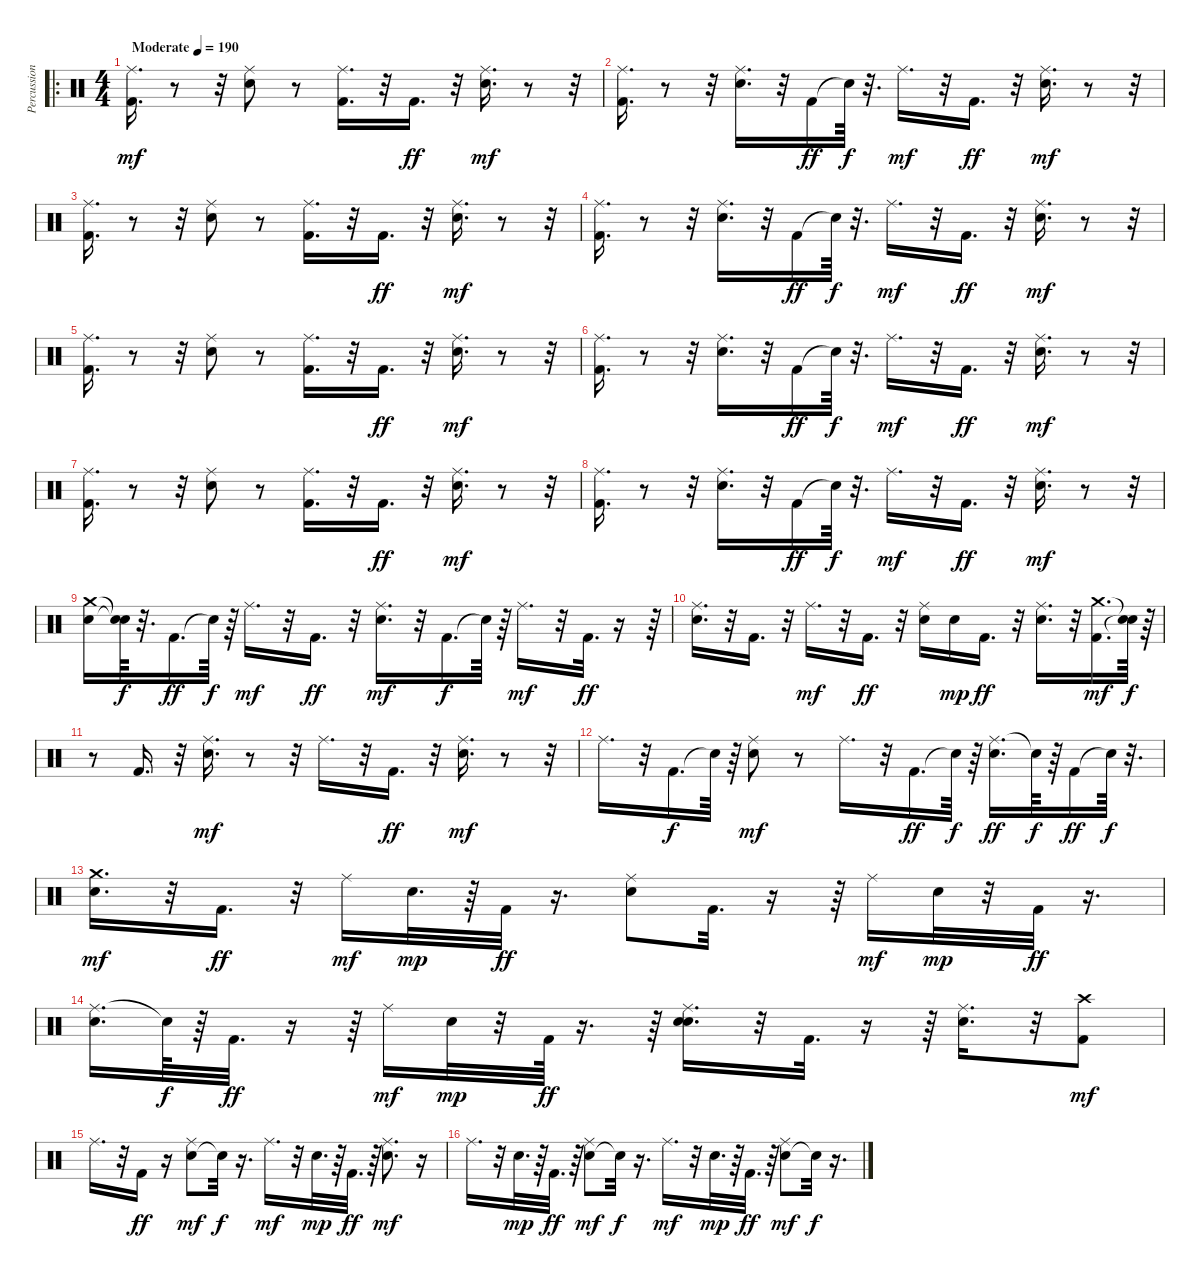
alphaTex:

\track ("Percussion" "Percussion") {instrument percussion}
\staff {score}
\articulation defaults
\ro
\ts (4 4)
\tempo (190 "Moderate")
\clef neutral
\ks c
("Kick (hit) 2" "Ride (middle)").16{d dy mf} r.8 r.32 ("Electric Snare (hit)" "Ride (middle)").8 r.8 ("Kick (hit) 2" "Ride (middle)").16{d} r.32 "Kick (hit) 2".16{d dy ff} r.32 ("Electric Snare (hit)" "Ride (middle)").16{d dy mf} r.8 r.32 |
("Kick (hit) 2" "Ride (middle)").16{d} r.8 r.32 ("Electric Snare (hit)" "Ride (middle)").16{d} r.32 "Kick (hit) 2".16{dy ff} "Snare (hit)"{t}.64{dy f} r.32{d} "Ride (middle)".16{d dy mf} r.32 "Kick (hit) 2".16{d dy ff} r.32 ("Electric Snare (hit)" "Ride (middle)").16{d dy mf} r.8 r.32 |
("Kick (hit) 2" "Ride (middle)").16{d} r.8 r.32 ("Electric Snare (hit)" "Ride (middle)").8 r.8 ("Kick (hit) 2" "Ride (middle)").16{d} r.32 "Kick (hit) 2".16{d dy ff} r.32 ("Electric Snare (hit)" "Ride (middle)").16{d dy mf} r.8 r.32 |
("Kick (hit) 2" "Ride (middle)").16{d} r.8 r.32 ("Electric Snare (hit)" "Ride (middle)").16{d} r.32 "Kick (hit) 2".16{dy ff} "Snare (hit)"{t}.64{dy f} r.32{d} "Ride (middle)".16{d dy mf} r.32 "Kick (hit) 2".16{d dy ff} r.32 ("Electric Snare (hit)" "Ride (middle)").16{d dy mf} r.8 r.32 |
("Kick (hit) 2" "Ride (middle)").16{d} r.8 r.32 ("Electric Snare (hit)" "Ride (middle)").8 r.8 ("Kick (hit) 2" "Ride (middle)").16{d} r.32 "Kick (hit) 2".16{d dy ff} r.32 ("Electric Snare (hit)" "Ride (middle)").16{d dy mf} r.8 r.32 |
("Kick (hit) 2" "Ride (middle)").16{d} r.8 r.32 ("Electric Snare (hit)" "Ride (middle)").16{d} r.32 "Kick (hit) 2".16{dy ff} "Snare (hit)"{t}.64{dy f} r.32{d} "Ride (middle)".16{d dy mf} r.32 "Kick (hit) 2".16{d dy ff} r.32 ("Electric Snare (hit)" "Ride (middle)").16{d dy mf} r.8 r.32 |
("Kick (hit) 2" "Ride (middle)").16{d} r.8 r.32 ("Electric Snare (hit)" "Ride (middle)").8 r.8 ("Kick (hit) 2" "Ride (middle)").16{d} r.32 "Kick (hit) 2".16{d dy ff} r.32 ("Electric Snare (hit)" "Ride (middle)").16{d dy mf} r.8 r.32 |
("Kick (hit) 2" "Ride (middle)").16{d} r.8 r.32 ("Electric Snare (hit)" "Ride (middle)").16{d} r.32 "Kick (hit) 2".16{dy ff} "Snare (hit)"{t}.64{dy f} r.32{d} "Ride (middle)".16{d dy mf} r.32 "Kick (hit) 2".16{d dy ff} r.32 ("Electric Snare (hit)" "Ride (middle)").16{d dy mf} r.8 r.32 |
("Electric Snare (hit)" "Crash medium (hit)").16 ("Snare (hit)"{t} "Snare (hit)"{t}).64{dy f} r.32{d} "Kick (hit) 2".16{d dy ff} "Snare (hit)"{t}.64{dy f} r.64 "Ride (middle)".16{d dy mf} r.32 "Kick (hit) 2".16{d dy ff} r.32 ("Electric Snare (hit)" "Ride (middle)").16{d dy mf} r.32 "Kick (hit) 2".16{d dy f} "Snare (hit)"{t}.64 r.64 "Ride (middle)".16{d dy mf} r.32 "Kick (hit) 2".32{d dy ff} r.16 r.64 |
("Ride (middle)" "Electric Snare (hit)").16{d} r.32 "Kick (hit) 2".16{d} r.32 "Ride (middle)".16{d dy mf} r.32 "Kick (hit) 2".16{d dy ff} r.32 ("Ride (middle)" "Electric Snare (hit)").16 "Electric Snare (hit)".16{dy mp} "Kick (hit) 2".16{d dy ff} r.32 ("Ride (middle)" "Electric Snare (hit)").16{d} r.32 ("Kick (hit) 2" "Crash medium (hit)").16{d dy mf} ("Snare (hit)"{t} "Snare (hit)"{t}).64{dy f} r.64 |
r.8 "Kick (hit) 2".16{d} r.32 ("Electric Snare (hit)" "Ride (middle)").16{d dy mf} r.8 r.32 "Ride (middle)".16{d} r.32 "Kick (hit) 2".16{d dy ff} r.32 ("Electric Snare (hit)" "Ride (middle)").16{d dy mf} r.8 r.32 |
"Ride (middle)".16{d} r.32 "Kick (hit) 2".16{d dy f} "Snare (hit)"{t}.64 r.64 ("Electric Snare (hit)" "Ride (middle)").8{dy mf} r.8 "Ride (middle)".16{d} r.32 "Kick (hit) 2".16{d dy ff} "Snare (hit)"{t}.64{dy f} r.64 ("Ride (middle)" "Electric Snare (hit)").16{d dy ff} "Snare (hit)"{t}.64{dy f} r.64 "Kick (hit) 2".16{dy ff} "Snare (hit)"{t}.64{dy f} r.32{d} |
("Electric Snare (hit)" "Crash medium (hit)").16{d dy mf} r.32 "Kick (hit) 2".16{d dy ff} r.32 "Ride (middle)".16{dy mf} "Electric Snare (hit)".32{d dy mp} r.64 "Kick (hit) 2".32{dy ff} r.16{d} ("Ride (middle)" "Electric Snare (hit)").8 "Kick (hit) 2".32{d} r.16 r.64 "Ride (middle)".16{dy mf} "Electric Snare (hit)".32{dy mp} r.32 "Kick (hit) 2".32{dy ff} r.16{d} |
("Ride (middle)" "Electric Snare (hit)").16{d} "Snare (hit)"{t}.64{dy f} r.64 "Kick (hit) 2".32{d dy ff} r.16 r.64 "Ride (middle)".16{dy mf} "Electric Snare (hit)".32{dy mp} r.32 "Kick (hit) 2".64{dy ff} r.16{d} r.64 ("Ride (middle)" "Electric Snare (hit)" "Electric Snare (hit)").16{d} r.32 "Kick (hit) 2".32{d} r.16 r.64 ("Ride (middle)" "Electric Snare (hit)").16{d} r.32 ("Kick (hit) 2" "Crash high (hit)").8{dy mf} |
"Ride (middle)".16{d} r.32 "Kick (hit) 2".16{dy ff} r.16 ("Electric Snare (hit)" "Ride (middle)").8{dy mf} "Snare (hit)"{t}.32{dy f} r.16{d} "Ride (middle)".16{d dy mf} r.32 "Electric Snare (hit)".32{d dy mp} r.64 "Kick (hit) 2".32{d dy ff} r.64 ("Electric Snare (hit)" "Ride (middle)").8{d dy mf} r.16 |
"Ride (middle)".16{d} r.32 "Electric Snare (hit)".32{d dy mp} r.64 "Kick (hit) 2".32{d dy ff} r.64 ("Electric Snare (hit)" "Ride (middle)").8{dy mf} "Snare (hit)"{t}.32{dy f} r.16{d} "Ride (middle)".16{d dy mf} r.32 "Electric Snare (hit)".32{d dy mp} r.64 "Kick (hit) 2".32{d dy ff} r.64 ("Electric Snare (hit)" "Ride (middle)").8{dy mf} "Snare (hit)"{t}.32{dy f} r.16{d}
